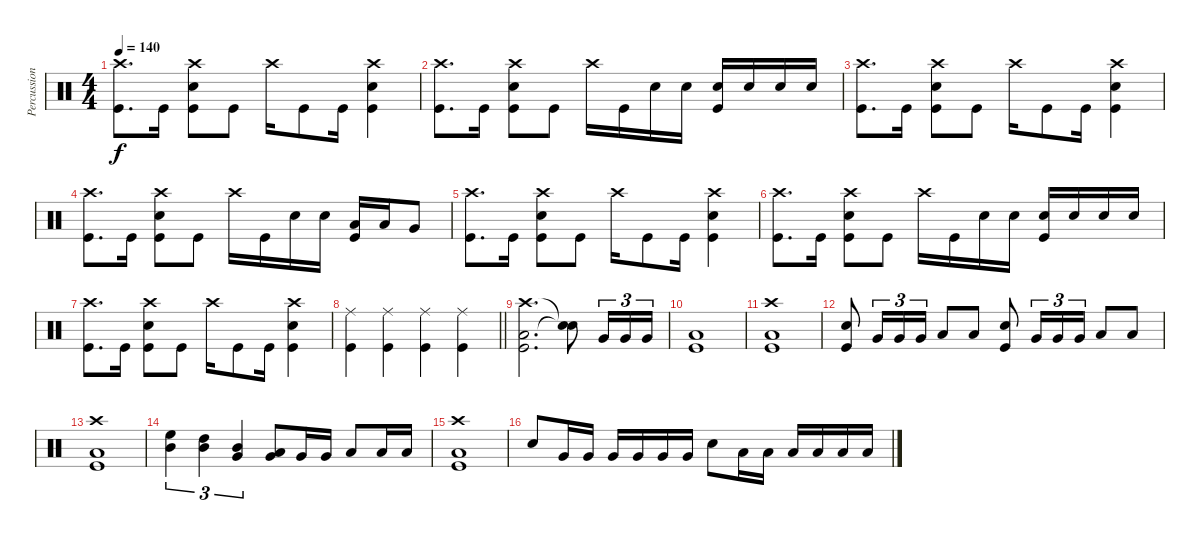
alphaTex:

\track ("Percussion" "Percussion") {instrument percussion}
\staff {score}
\articulation defaults
\ts (4 4)
\tempo 140
\clef neutral
\ks c
("Crash high (hit)" "Kick (hit)").8{d dy f} "Kick (hit)".16 ("Crash high (hit)" "Snare (hit) 2" "Kick (hit)").8 "Kick (hit)".8 "Crash high (hit)".16 "Kick (hit)".8 "Kick (hit)".16 ("Crash high (hit)" "Snare (hit) 2" "Kick (hit)").4 |
("Crash high (hit)" "Kick (hit)").8{d} "Kick (hit)".16 ("Crash high (hit)" "Snare (hit) 2" "Kick (hit)").8 "Kick (hit)".8 "Crash high (hit)".16 "Kick (hit)".16 "Snare (hit) 2".16 "Snare (hit) 2".16 ("Snare (hit) 2" "Kick (hit)").16 "Snare (hit) 2".16 "Snare (hit) 2".16 "Snare (hit) 2".16 |
("Crash high (hit)" "Kick (hit)").8{d} "Kick (hit)".16 ("Crash high (hit)" "Snare (hit) 2" "Kick (hit)").8 "Kick (hit)".8 "Crash high (hit)".16 "Kick (hit)".8 "Kick (hit)".16 ("Crash high (hit)" "Snare (hit) 2" "Kick (hit)").4 |
("Crash high (hit)" "Kick (hit)").8{d} "Kick (hit)".16 ("Crash high (hit)" "Snare (hit) 2" "Kick (hit)").8 "Kick (hit)".8 "Crash high (hit)".16 "Kick (hit)".16 "Snare (hit) 2".16 "Snare (hit) 2".16 ("Low Tom (hit)" "Kick (hit)").16 "Low Tom (hit)".16 "Very Low Tom (hit)".8 |
("Crash high (hit)" "Kick (hit)").8{d} "Kick (hit)".16 ("Crash high (hit)" "Snare (hit) 2" "Kick (hit)").8 "Kick (hit)".8 "Crash high (hit)".16 "Kick (hit)".8 "Kick (hit)".16 ("Crash high (hit)" "Snare (hit) 2" "Kick (hit)").4 |
("Crash high (hit)" "Kick (hit)").8{d} "Kick (hit)".16 ("Crash high (hit)" "Snare (hit) 2" "Kick (hit)").8 "Kick (hit)".8 "Crash high (hit)".16 "Kick (hit)".16 "Snare (hit) 2".16 "Snare (hit) 2".16 ("Snare (hit) 2" "Kick (hit)").16 "Snare (hit) 2".16 "Snare (hit) 2".16 "Snare (hit) 2".16 |
("Crash high (hit)" "Kick (hit)").8{d} "Kick (hit)".16 ("Crash high (hit)" "Snare (hit) 2" "Kick (hit)").8 "Kick (hit)".8 "Crash high (hit)".16 "Kick (hit)".8 "Kick (hit)".16 ("Crash high (hit)" "Snare (hit) 2" "Kick (hit)").4 |
\barLineRight lightlight
("Ride (middle)" "Kick (hit)").4 ("Ride (middle)" "Kick (hit)").4 ("Ride (middle)" "Kick (hit)").4 ("Ride (middle)" "Kick (hit)").4 |
("Crash high (hit)" "Low Floor Tom (hit)" "Kick (hit)").2{d} ("Snare (hit)"{t} "Snare (hit)"{t}).8 "Very Low Tom (hit)".16{tu (3 2)} "Very Low Tom (hit)".16{tu (3 2)} "Very Low Tom (hit)".16{tu (3 2)} |
("Low Floor Tom (hit)" "Kick (hit)").1 |
("Crash high (hit)" "Low Floor Tom (hit)" "Kick (hit)").1 |
("Snare (hit) 2" "Kick (hit)").8 "Very Low Tom (hit)".16{tu (3 2)} "Very Low Tom (hit)".16{tu (3 2)} "Very Low Tom (hit)".16{tu (3 2)} "Low Floor Tom (hit)".8 "Low Floor Tom (hit)".8 ("Snare (hit) 2" "Kick (hit)").8 "Very Low Tom (hit)".16{tu (3 2)} "Very Low Tom (hit)".16{tu (3 2)} "Very Low Tom (hit)".16{tu (3 2)} "Low Floor Tom (hit)".8 "Low Floor Tom (hit)".8 |
("Crash high (hit)" "Low Floor Tom (hit)" "Kick (hit)").1 |
("High Floor Tom (hit)" "Mid Tom (hit)").4{tu (3 2)} ("High Tom (hit)" "Mid Tom (hit)").4{tu (3 2)} ("Mid Tom (hit)" "Very Low Tom (hit)").4{tu (3 2)} ("Low Tom (hit)" "Very Low Tom (hit)").8 "Very Low Tom (hit)".16 "Very Low Tom (hit)".16 "Low Floor Tom (hit)".8 "Low Floor Tom (hit)".16 "Low Floor Tom (hit)".16 |
("Crash high (hit)" "Low Floor Tom (hit)" "Kick (hit)").1 |
"Snare (hit) 2".8 "Very Low Tom (hit)".16 "Very Low Tom (hit)".16 "Very Low Tom (hit)".16 "Very Low Tom (hit)".16 "Very Low Tom (hit)".16 "Very Low Tom (hit)".16 "Snare (hit) 2".8 "Low Floor Tom (hit)".16 "Low Floor Tom (hit)".16 "Low Floor Tom (hit)".16 "Low Floor Tom (hit)".16 "Low Floor Tom (hit)".16 "Low Floor Tom (hit)".16
